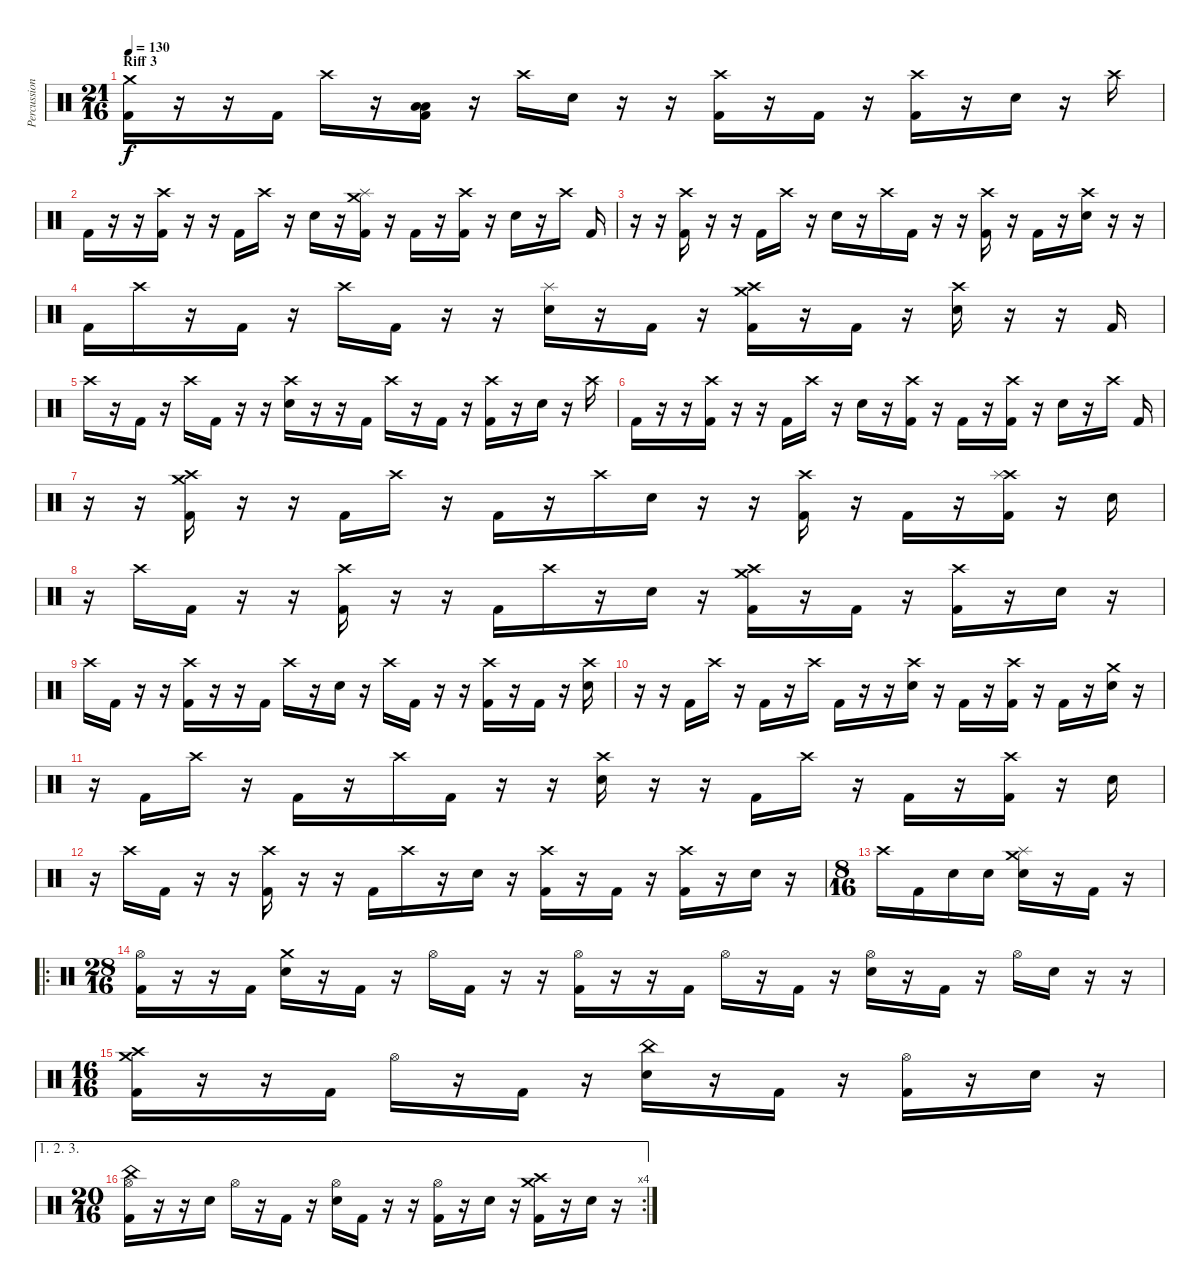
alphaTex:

\track ("Percussions" "Percussion") {instrument percussion}
\staff {score}
\articulation defaults
\ts (21 16)
\section ("" "Riff 3")
\tempo 130
\clef neutral
\ks c
("Crash medium (hit)" "Kick (hit) 2").16{dy f} r.16 r.16 "Kick (hit) 2".16 "Crash high (hit)".16 r.16 ("Low Floor Tom (hit)" "Low Floor Tom (hit)" "Kick (hit) 2").16 r.16 "Crash high (hit)".16 "Electric Snare (hit)".16 r.16 r.16 ("Crash high (hit)" "Kick (hit) 2").16 r.16 "Kick (hit) 2".16 r.16 ("Crash high (hit)" "Kick (hit) 2").16 r.16 "Electric Snare (hit)".16 r.16 "Crash high (hit)".16 |
"Kick (hit) 2".16 r.16 r.16 ("Crash high (hit)" "Kick (hit) 2").16 r.16 r.16 "Kick (hit) 2".16 "Crash high (hit)".16 r.16 "Electric Snare (hit)".16 r.16 ("Crash medium (hit)" "Splash (hit)" "Kick (hit) 2").16 r.16 "Kick (hit) 2".16 r.16 ("Crash high (hit)" "Kick (hit) 2").16 r.16 "Electric Snare (hit)".16 r.16 "Crash high (hit)".16 "Kick (hit) 2".16 |
r.16 r.16 ("Crash high (hit)" "Kick (hit) 2").16 r.16 r.16 "Kick (hit) 2".16 "Crash high (hit)".16 r.16 "Electric Snare (hit)".16 r.16 "Crash high (hit)".16 "Kick (hit) 2".16 r.16 r.16 ("Crash high (hit)" "Kick (hit) 2").16 r.16 "Kick (hit) 2".16 r.16 ("Crash high (hit)" "Electric Snare (hit)").16 r.16 r.16 |
"Kick (hit) 2".16 "Crash high (hit)".16 r.16 "Kick (hit) 2".16 r.16 "Crash high (hit)".16 "Kick (hit) 2".16 r.16 r.16 ("Splash (hit)" "Electric Snare (hit)").16 r.16 "Kick (hit) 2".16 r.16 ("Crash high (hit)" "Crash medium (hit)" "Kick (hit) 2").16 r.16 "Kick (hit) 2".16 r.16 ("Crash high (hit)" "Electric Snare (hit)").16 r.16 r.16 "Kick (hit) 2".16 |
"Crash high (hit)".16 r.16 "Kick (hit) 2".16 r.16 "Crash high (hit)".16 "Kick (hit) 2".16 r.16 r.16 ("Crash high (hit)" "Electric Snare (hit)").16 r.16 r.16 "Kick (hit) 2".16 "Crash high (hit)".16 r.16 "Kick (hit) 2".16 r.16 ("Crash high (hit)" "Kick (hit) 2").16 r.16 "Electric Snare (hit)".16 r.16 "Crash high (hit)".16 |
"Kick (hit) 2".16 r.16 r.16 ("Crash high (hit)" "Kick (hit) 2").16 r.16 r.16 "Kick (hit) 2".16 "Crash high (hit)".16 r.16 "Electric Snare (hit)".16 r.16 ("Crash high (hit)" "Kick (hit) 2").16 r.16 "Kick (hit) 2".16 r.16 ("Crash high (hit)" "Kick (hit) 2").16 r.16 "Electric Snare (hit)".16 r.16 "Crash high (hit)".16 "Kick (hit) 2".16 |
r.16 r.16 ("Crash high (hit)" "Crash medium (hit)" "Kick (hit) 2").16 r.16 r.16 "Kick (hit) 2".16 "Crash high (hit)".16 r.16 "Kick (hit) 2".16 r.16 "Crash high (hit)".16 "Electric Snare (hit)".16 r.16 r.16 ("Crash high (hit)" "Kick (hit) 2").16 r.16 "Kick (hit) 2".16 r.16 ("Crash high (hit)" "Splash (hit)" "Kick (hit) 2").16 r.16 "Electric Snare (hit)".16 |
r.16 "Crash high (hit)".16 "Kick (hit) 2".16 r.16 r.16 ("Crash high (hit)" "Kick (hit) 2").16 r.16 r.16 "Kick (hit) 2".16 "Crash high (hit)".16 r.16 "Electric Snare (hit)".16 r.16 ("Crash high (hit)" "Crash medium (hit)" "Kick (hit) 2").16 r.16 "Kick (hit) 2".16 r.16 ("Crash high (hit)" "Kick (hit) 2").16 r.16 "Electric Snare (hit)".16 r.16 |
"Crash high (hit)".16 "Kick (hit) 2".16 r.16 r.16 ("Crash high (hit)" "Kick (hit) 2").16 r.16 r.16 "Kick (hit) 2".16 "Crash high (hit)".16 r.16 "Electric Snare (hit)".16 r.16 "Crash high (hit)".16 "Kick (hit) 2".16 r.16 r.16 ("Crash high (hit)" "Kick (hit) 2").16 r.16 "Kick (hit) 2".16 r.16 ("Crash high (hit)" "Electric Snare (hit)").16 |
r.16 r.16 "Kick (hit) 2".16 "Crash high (hit)".16 r.16 "Kick (hit) 2".16 r.16 "Crash high (hit)".16 "Kick (hit) 2".16 r.16 r.16 ("Crash high (hit)" "Electric Snare (hit)").16 r.16 "Kick (hit) 2".16 r.16 ("Crash high (hit)" "Kick (hit) 2").16 r.16 "Kick (hit) 2".16 r.16 ("Crash medium (hit)" "Electric Snare (hit)").16 r.16 |
r.16 "Kick (hit) 2".16 "Crash high (hit)".16 r.16 "Kick (hit) 2".16 r.16 "Crash high (hit)".16 "Kick (hit) 2".16 r.16 r.16 ("Crash high (hit)" "Electric Snare (hit)").16 r.16 r.16 "Kick (hit) 2".16 "Crash high (hit)".16 r.16 "Kick (hit) 2".16 r.16 ("Crash high (hit)" "Kick (hit) 2").16 r.16 "Electric Snare (hit)".16 |
r.16 "Crash high (hit)".16 "Kick (hit) 2".16 r.16 r.16 ("Crash high (hit)" "Kick (hit) 2").16 r.16 r.16 "Kick (hit) 2".16 "Crash high (hit)".16 r.16 "Electric Snare (hit)".16 r.16 ("Crash high (hit)" "Kick (hit) 2").16 r.16 "Kick (hit) 2".16 r.16 ("Crash high (hit)" "Kick (hit) 2").16 r.16 "Electric Snare (hit)".16 r.16 |
\ts (8 16)
"Crash high (hit)".16 "Kick (hit) 2".16 "Electric Snare (hit)".16 "Electric Snare (hit)".16 ("Crash medium (hit)" "Splash (hit)" "Electric Snare (hit)").16 r.16 "Kick (hit) 2".16 r.16 |
\ro
\ts (28 16)
("Hi-Hat (open)" "Kick (hit) 2").16 r.16 r.16 "Kick (hit) 2".16 ("Crash medium (hit)" "Electric Snare (hit)").16 r.16 "Kick (hit) 2".16 r.16 "Hi-Hat (open)".16 "Kick (hit) 2".16 r.16 r.16 ("Hi-Hat (open)" "Kick (hit) 2").16 r.16 r.16 "Kick (hit) 2".16 "Hi-Hat (open)".16 r.16 "Kick (hit) 2".16 r.16 ("Hi-Hat (open)" "Electric Snare (hit)").16 r.16 "Kick (hit) 2".16 r.16 "Hi-Hat (open)".16 "Electric Snare (hit)".16 r.16 r.16 |
\ts (16 16)
("Crash medium (hit)" "Crash high (hit)" "Kick (hit) 2").16 r.16 r.16 "Kick (hit) 2".16 "Hi-Hat (open)".16 r.16 "Kick (hit) 2".16 r.16 ("China (hit)" "Electric Snare (hit)").16 r.16 "Kick (hit) 2".16 r.16 ("Hi-Hat (open)" "Kick (hit) 2").16 r.16 "Electric Snare (hit)".16 r.16 |
\ae (1 2 3)
\rc 4
\ts (20 16)
("China (hit)" "Hi-Hat (open)" "Kick (hit) 2").16 r.16 r.16 "Electric Snare (hit)".16 "Hi-Hat (open)".16 r.16 "Kick (hit) 2".16 r.16 ("Hi-Hat (open)" "Electric Snare (hit)").16 "Kick (hit) 2".16 r.16 r.16 ("Hi-Hat (open)" "Kick (hit) 2").16 r.16 "Electric Snare (hit)".16 r.16 ("Crash medium (hit)" "Crash high (hit)" "Kick (hit) 2").16 r.16 "Electric Snare (hit)".16 r.16
